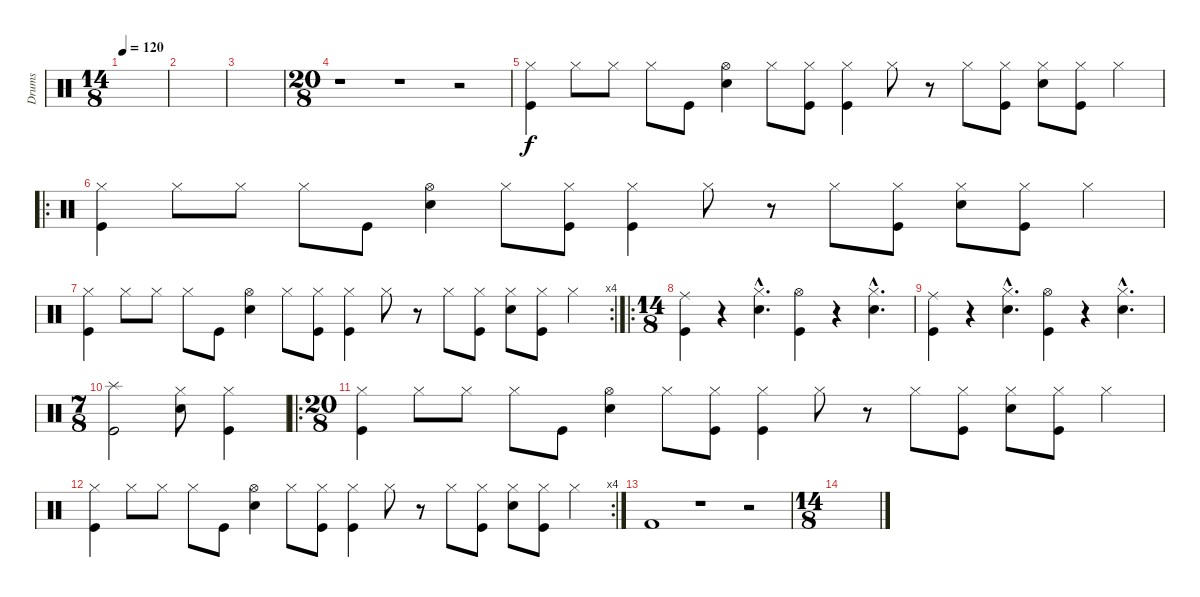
\track ("Drums" "Drums") {instrument percussion}
\staff {score}
\articulation defaults
\ts (14 8)
\tempo 120
\clef neutral
\ks c
|
|
|
\ts (20 8)
r.1 r.1 r.2 |
("Hi-Hat (closed)" "Kick (hit)").4 "Hi-Hat (closed)".8 "Hi-Hat (closed)".8 "Hi-Hat (closed)".8 "Kick (hit)".8 ("Snare (hit) 2" "Hi-Hat (open)").4 "Hi-Hat (closed)".8 ("Hi-Hat (closed)" "Kick (hit)").8 ("Hi-Hat (closed)" "Kick (hit)").4 "Hi-Hat (closed)".8 r.8 "Hi-Hat (closed)".8 ("Hi-Hat (closed)" "Kick (hit)").8 ("Snare (hit) 2" "Hi-Hat (closed)").8 ("Hi-Hat (closed)" "Kick (hit)").8 "Hi-Hat (closed)".4 |
\ro
("Hi-Hat (closed)" "Kick (hit)").4 "Hi-Hat (closed)".8 "Hi-Hat (closed)".8 "Hi-Hat (closed)".8 "Kick (hit)".8 ("Snare (hit) 2" "Hi-Hat (open)").4 "Hi-Hat (closed)".8 ("Hi-Hat (closed)" "Kick (hit)").8 ("Hi-Hat (closed)" "Kick (hit)").4 "Hi-Hat (closed)".8 r.8 "Hi-Hat (closed)".8 ("Hi-Hat (closed)" "Kick (hit)").8 ("Snare (hit) 2" "Hi-Hat (closed)").8 ("Hi-Hat (closed)" "Kick (hit)").8 "Hi-Hat (closed)".4 |
\rc 4
("Hi-Hat (closed)" "Kick (hit)").4 "Hi-Hat (closed)".8 "Hi-Hat (closed)".8 "Hi-Hat (closed)".8 "Kick (hit)".8 ("Snare (hit) 2" "Hi-Hat (open)").4 "Hi-Hat (closed)".8 ("Hi-Hat (closed)" "Kick (hit)").8 ("Hi-Hat (closed)" "Kick (hit)").4 "Hi-Hat (closed)".8 r.8 "Hi-Hat (closed)".8 ("Hi-Hat (closed)" "Kick (hit)").8 ("Snare (hit) 2" "Hi-Hat (closed)").8 ("Hi-Hat (closed)" "Kick (hit)").8 "Hi-Hat (closed)".4 |
\ro
\ts (14 8)
("Ride (middle)" "Kick (hit)").4 r.4 ("Snare (hit) 2"{hac} "Hi-Hat (closed)"{hac}).4{d} ("Hi-Hat (open)" "Kick (hit)").4 r.4 ("Snare (hit) 2"{hac} "Hi-Hat (closed)"{hac}).4{d} |
("Ride (middle)" "Kick (hit)").4 r.4 ("Snare (hit) 2"{hac} "Hi-Hat (closed)"{hac}).4{d} ("Hi-Hat (open)" "Kick (hit)").4 r.4 ("Snare (hit) 2"{hac} "Hi-Hat (closed)"{hac}).4{d} |
\ts (7 8)
("Splash (hit)" "Kick (hit)").2 ("Snare (hit) 2" "Hi-Hat (closed)").8 ("Hi-Hat (closed)" "Kick (hit)").4 |
\ro
\ts (20 8)
("Hi-Hat (closed)" "Kick (hit)").4 "Hi-Hat (closed)".8 "Hi-Hat (closed)".8 "Hi-Hat (closed)".8 "Kick (hit)".8 ("Snare (hit) 2" "Hi-Hat (open)").4 "Hi-Hat (closed)".8 ("Hi-Hat (closed)" "Kick (hit)").8 ("Hi-Hat (closed)" "Kick (hit)").4 "Hi-Hat (closed)".8 r.8 "Hi-Hat (closed)".8 ("Hi-Hat (closed)" "Kick (hit)").8 ("Snare (hit) 2" "Hi-Hat (closed)").8 ("Hi-Hat (closed)" "Kick (hit)").8 "Hi-Hat (closed)".4 |
\rc 4
("Hi-Hat (closed)" "Kick (hit)").4 "Hi-Hat (closed)".8 "Hi-Hat (closed)".8 "Hi-Hat (closed)".8 "Kick (hit)".8 ("Snare (hit) 2" "Hi-Hat (open)").4 "Hi-Hat (closed)".8 ("Hi-Hat (closed)" "Kick (hit)").8 ("Hi-Hat (closed)" "Kick (hit)").4 "Hi-Hat (closed)".8 r.8 "Hi-Hat (closed)".8 ("Hi-Hat (closed)" "Kick (hit)").8 ("Snare (hit) 2" "Hi-Hat (closed)").8 ("Hi-Hat (closed)" "Kick (hit)").8 "Hi-Hat (closed)".4 |
"Kick (hit) 2".1 r.1 r.2 |
\ts (14 8)
